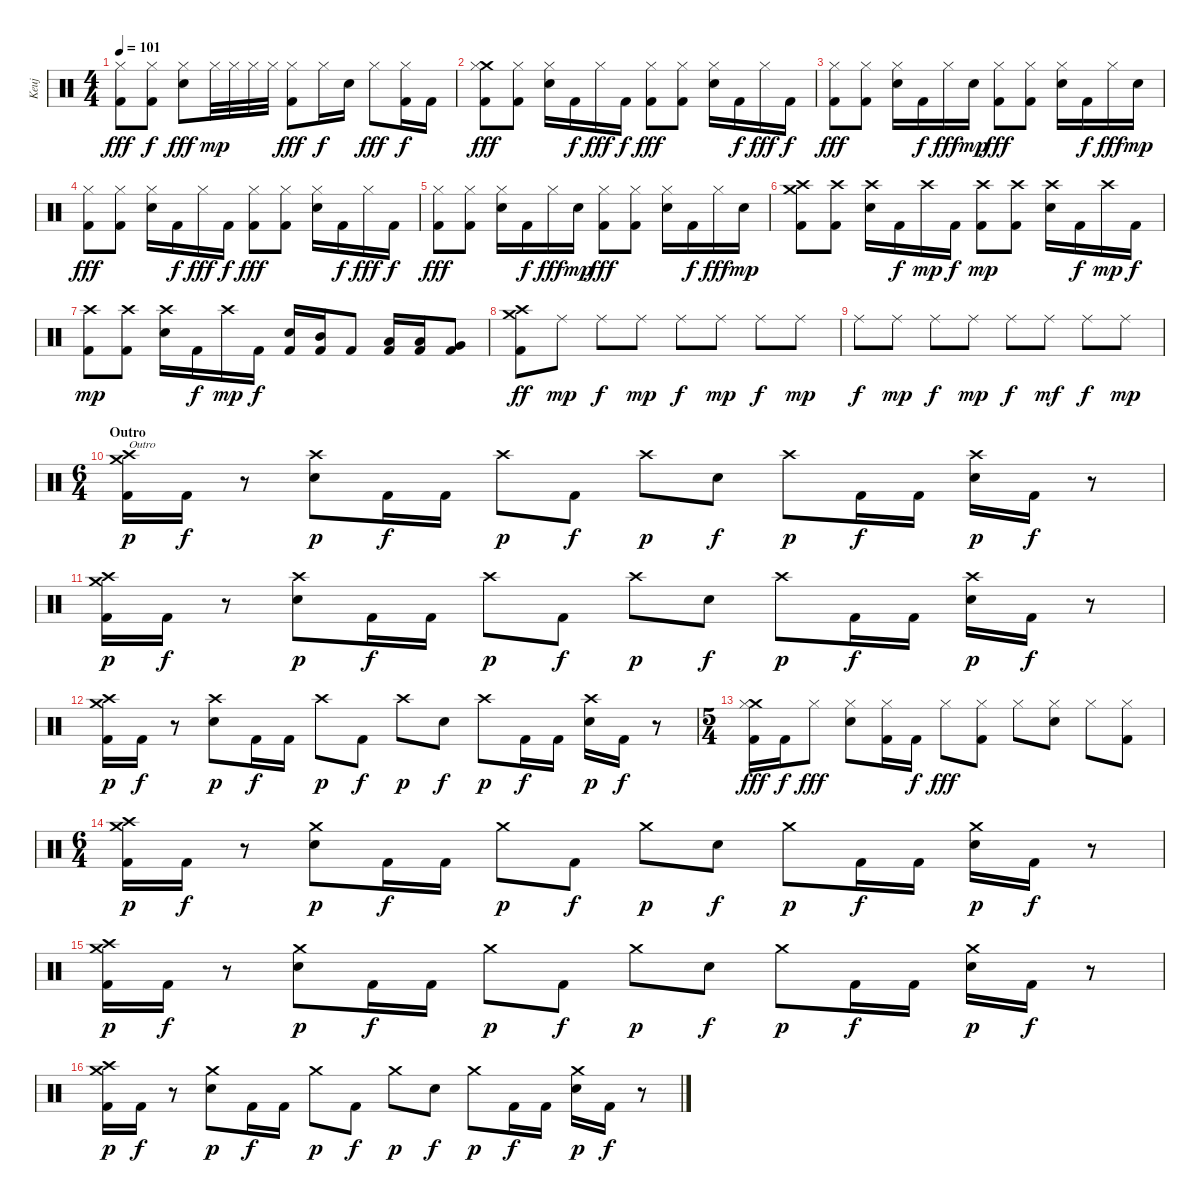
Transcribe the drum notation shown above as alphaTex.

\track ("Keuj" "Keuj") {instrument percussion}
\staff {score}
\articulation defaults
\ts (4 4)
\tempo 101
\clef neutral
\ks c
("Hi-Hat (closed)" "Kick (hit) 2").8{dy fff} ("Hi-Hat (closed)" "Kick (hit) 2").8{dy f} ("Electric Snare (hit)" "Hi-Hat (closed)").8{dy fff} "Hi-Hat (closed)".32{dy mp} "Hi-Hat (closed)".32 "Hi-Hat (closed)".32 "Hi-Hat (closed)".32 ("Hi-Hat (closed)" "Kick (hit) 2").8{dy fff} "Hi-Hat (closed)".16{dy f} "Electric Snare (hit)".16 "Hi-Hat (closed)".8{dy fff} ("Hi-Hat (closed)" "Kick (hit) 2").16{dy f} "Kick (hit) 2".16 |
("Crash medium (hit)" "Hi-Hat (closed)" "Kick (hit) 2").8{dy fff} ("Hi-Hat (closed)" "Kick (hit) 2").8 ("Electric Snare (hit)" "Hi-Hat (closed)").16 "Kick (hit) 2".16{dy f} "Hi-Hat (closed)".16{dy fff} "Kick (hit) 2".16{dy f} ("Hi-Hat (closed)" "Kick (hit) 2").8{dy fff} ("Hi-Hat (closed)" "Kick (hit) 2").8 ("Electric Snare (hit)" "Hi-Hat (closed)").16 "Kick (hit) 2".16{dy f} "Hi-Hat (closed)".16{dy fff} "Kick (hit) 2".16{dy f} |
("Hi-Hat (closed)" "Kick (hit) 2").8{dy fff} ("Hi-Hat (closed)" "Kick (hit) 2").8 ("Electric Snare (hit)" "Hi-Hat (closed)").16 "Kick (hit) 2".16{dy f} "Hi-Hat (closed)".16{dy fff} "Electric Snare (hit)".16{dy mp} ("Hi-Hat (closed)" "Kick (hit) 2").8{dy fff} ("Hi-Hat (closed)" "Kick (hit) 2").8 ("Electric Snare (hit)" "Hi-Hat (closed)").16 "Kick (hit) 2".16{dy f} "Hi-Hat (closed)".16{dy fff} "Electric Snare (hit)".16{dy mp} |
("Hi-Hat (closed)" "Kick (hit) 2").8{dy fff} ("Hi-Hat (closed)" "Kick (hit) 2").8 ("Electric Snare (hit)" "Hi-Hat (closed)").16 "Kick (hit) 2".16{dy f} "Hi-Hat (closed)".16{dy fff} "Kick (hit) 2".16{dy f} ("Hi-Hat (closed)" "Kick (hit) 2").8{dy fff} ("Hi-Hat (closed)" "Kick (hit) 2").8 ("Electric Snare (hit)" "Hi-Hat (closed)").16 "Kick (hit) 2".16{dy f} "Hi-Hat (closed)".16{dy fff} "Kick (hit) 2".16{dy f} |
("Hi-Hat (closed)" "Kick (hit) 2").8{dy fff} ("Hi-Hat (closed)" "Kick (hit) 2").8 ("Electric Snare (hit)" "Hi-Hat (closed)").16 "Kick (hit) 2".16{dy f} "Hi-Hat (closed)".16{dy fff} "Electric Snare (hit)".16{dy mp} ("Hi-Hat (closed)" "Kick (hit) 2").8{dy fff} ("Hi-Hat (closed)" "Kick (hit) 2").8 ("Electric Snare (hit)" "Hi-Hat (closed)").16 "Kick (hit) 2".16{dy f} "Hi-Hat (closed)".16{dy fff} "Electric Snare (hit)".16{dy mp} |
("Crash medium (hit)" "Crash high (hit)" "Kick (hit) 2").8 ("Crash high (hit)" "Kick (hit) 2").8 ("Crash high (hit)" "Electric Snare (hit)").16 "Kick (hit) 2".16{dy f} "Crash high (hit)".16{dy mp} "Kick (hit) 2".16{dy f} ("Crash high (hit)" "Kick (hit) 2").8{dy mp} ("Crash high (hit)" "Kick (hit) 2").8 ("Crash high (hit)" "Electric Snare (hit)").16 "Kick (hit) 2".16{dy f} "Crash high (hit)".16{dy mp} "Kick (hit) 2".16{dy f} |
("Crash high (hit)" "Kick (hit) 2").8{dy mp} ("Crash high (hit)" "Kick (hit) 2").8 ("Crash high (hit)" "Electric Snare (hit)").16 "Kick (hit) 2".16{dy f} "Crash high (hit)".16{dy mp} "Kick (hit) 2".16{dy f} ("Electric Snare (hit)" "Kick (hit) 2").16 ("Mid Tom (hit)" "Kick (hit) 2").16 "Kick (hit) 2".8 ("Low Tom (hit)" "Kick (hit) 2").16 ("Low Tom (hit)" "Kick (hit) 2").16 ("Very Low Tom (hit)" "Kick (hit) 2").8 |
("Crash medium (hit)" "Crash high (hit)" "Kick (hit) 2").8{dy ff} "Ride (middle)".8{dy mp} "Ride (middle)".8{dy f} "Ride (middle)".8{dy mp} "Ride (middle)".8{dy f} "Ride (middle)".8{dy mp} "Ride (middle)".8{dy f} "Ride (middle)".8{dy mp} |
"Ride (middle)".8{dy f} "Ride (middle)".8{dy mp} "Ride (middle)".8{dy f} "Ride (middle)".8{dy mp} "Ride (middle)".8{dy f} "Ride (middle)".8{dy mf} "Ride (middle)".8{dy f} "Ride (middle)".8{dy mp} |
\ts (6 4)
\section ("" "Outro")
("Crash medium (hit)" "Crash high (hit)" "Kick (hit) 2").16{txt "Outro" dy p} "Kick (hit) 2".16{dy f} r.8 ("Crash high (hit)" "Electric Snare (hit)").8{dy p} "Kick (hit) 2".16{dy f} "Kick (hit) 2".16 "Crash high (hit)".8{dy p} "Kick (hit) 2".8{dy f} "Crash high (hit)".8{dy p} "Electric Snare (hit)".8{dy f} "Crash high (hit)".8{dy p} "Kick (hit) 2".16{dy f} "Kick (hit) 2".16 ("Crash high (hit)" "Electric Snare (hit)").16{dy p} "Kick (hit) 2".16{dy f} r.8 |
("Crash medium (hit)" "Crash high (hit)" "Kick (hit) 2").16{dy p} "Kick (hit) 2".16{dy f} r.8 ("Crash high (hit)" "Electric Snare (hit)").8{dy p} "Kick (hit) 2".16{dy f} "Kick (hit) 2".16 "Crash high (hit)".8{dy p} "Kick (hit) 2".8{dy f} "Crash high (hit)".8{dy p} "Electric Snare (hit)".8{dy f} "Crash high (hit)".8{dy p} "Kick (hit) 2".16{dy f} "Kick (hit) 2".16 ("Crash high (hit)" "Electric Snare (hit)").16{dy p} "Kick (hit) 2".16{dy f} r.8 |
("Crash medium (hit)" "Crash high (hit)" "Kick (hit) 2").16{dy p} "Kick (hit) 2".16{dy f} r.8 ("Crash high (hit)" "Electric Snare (hit)").8{dy p} "Kick (hit) 2".16{dy f} "Kick (hit) 2".16 "Crash high (hit)".8{dy p} "Kick (hit) 2".8{dy f} "Crash high (hit)".8{dy p} "Electric Snare (hit)".8{dy f} "Crash high (hit)".8{dy p} "Kick (hit) 2".16{dy f} "Kick (hit) 2".16 ("Crash high (hit)" "Electric Snare (hit)").16{dy p} "Kick (hit) 2".16{dy f} r.8 |
\ts (5 4)
("Crash medium (hit)" "Hi-Hat (closed)" "Kick (hit) 2").16{dy fff} "Kick (hit) 2".16{dy f} "Hi-Hat (closed)".8{dy fff} ("Electric Snare (hit)" "Hi-Hat (closed)").8 ("Hi-Hat (closed)" "Kick (hit) 2").16 "Kick (hit) 2".16{dy f} "Hi-Hat (closed)".8{dy fff} ("Hi-Hat (closed)" "Kick (hit) 2").8 "Hi-Hat (closed)".8 ("Electric Snare (hit)" "Hi-Hat (closed)").8 "Hi-Hat (closed)".8 ("Hi-Hat (closed)" "Kick (hit) 2").8 |
\ts (6 4)
("Crash medium (hit)" "Crash high (hit)" "Kick (hit) 2").16{dy p} "Kick (hit) 2".16{dy f} r.8 ("Crash medium (hit)" "Electric Snare (hit)").8{dy p} "Kick (hit) 2".16{dy f} "Kick (hit) 2".16 "Crash medium (hit)".8{dy p} "Kick (hit) 2".8{dy f} "Crash medium (hit)".8{dy p} "Electric Snare (hit)".8{dy f} "Crash medium (hit)".8{dy p} "Kick (hit) 2".16{dy f} "Kick (hit) 2".16 ("Crash medium (hit)" "Electric Snare (hit)").16{dy p} "Kick (hit) 2".16{dy f} r.8 |
("Crash medium (hit)" "Crash high (hit)" "Kick (hit) 2").16{dy p} "Kick (hit) 2".16{dy f} r.8 ("Crash medium (hit)" "Electric Snare (hit)").8{dy p} "Kick (hit) 2".16{dy f} "Kick (hit) 2".16 "Crash medium (hit)".8{dy p} "Kick (hit) 2".8{dy f} "Crash medium (hit)".8{dy p} "Electric Snare (hit)".8{dy f} "Crash medium (hit)".8{dy p} "Kick (hit) 2".16{dy f} "Kick (hit) 2".16 ("Crash medium (hit)" "Electric Snare (hit)").16{dy p} "Kick (hit) 2".16{dy f} r.8 |
("Crash medium (hit)" "Crash high (hit)" "Kick (hit) 2").16{dy p} "Kick (hit) 2".16{dy f} r.8 ("Crash medium (hit)" "Electric Snare (hit)").8{dy p} "Kick (hit) 2".16{dy f} "Kick (hit) 2".16 "Crash medium (hit)".8{dy p} "Kick (hit) 2".8{dy f} "Crash medium (hit)".8{dy p} "Electric Snare (hit)".8{dy f} "Crash medium (hit)".8{dy p} "Kick (hit) 2".16{dy f} "Kick (hit) 2".16 ("Crash medium (hit)" "Electric Snare (hit)").16{dy p} "Kick (hit) 2".16{dy f} r.8
